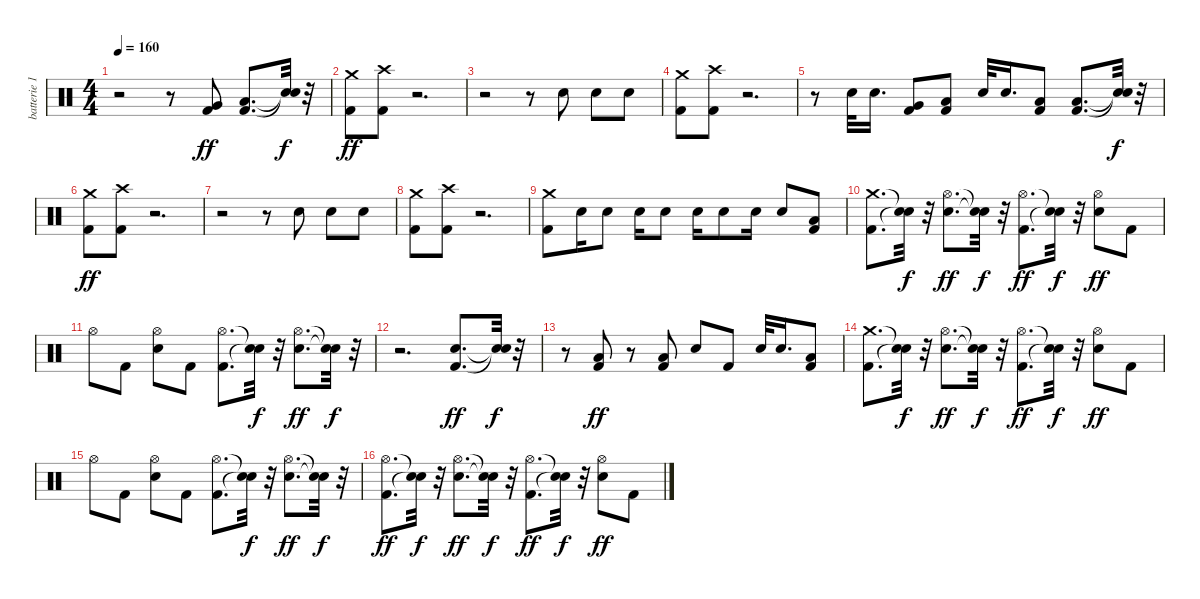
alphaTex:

\track ("batterie 1" "batterie 1") {instrument percussion}
\staff {score}
\articulation defaults
\ts (4 4)
\tempo 160
\clef neutral
\ks c
r.2{dy ff} r.8 ("Kick (hit) 2" "Very Low Tom (hit)").8 ("Kick (hit) 2" "Low Floor Tom (hit)").8{d} ("Snare (hit)"{t} "Snare (hit)"{t}).32{dy f} r.32 |
("Kick (hit) 2" "Crash medium (hit)").8{dy ff} ("Kick (hit) 2" "Crash high (hit)").8 r.2{d} |
r.2 r.8 "Electric Snare (hit)".8 "Electric Snare (hit)".8 "Electric Snare (hit)".8 |
("Kick (hit) 2" "Crash medium (hit)").8 ("Kick (hit) 2" "Crash high (hit)").8 r.2{d} |
r.8 "Electric Snare (hit)".32 "Electric Snare (hit)".16{d} ("Kick (hit) 2" "Very Low Tom (hit)").8 ("Kick (hit) 2" "Low Floor Tom (hit)").8 "Electric Snare (hit)".32 "Electric Snare (hit)".16{d} ("Kick (hit) 2" "Low Floor Tom (hit)").8 ("Kick (hit) 2" "Low Floor Tom (hit)").8{d} ("Snare (hit)"{t} "Snare (hit)"{t}).32{dy f} r.32 |
("Kick (hit) 2" "Crash medium (hit)").8{dy ff} ("Kick (hit) 2" "Crash high (hit)").8 r.2{d} |
r.2 r.8 "Electric Snare (hit)".8 "Electric Snare (hit)".8 "Electric Snare (hit)".8 |
("Kick (hit) 2" "Crash medium (hit)").8 ("Kick (hit) 2" "Crash high (hit)").8 r.2{d} |
("Kick (hit) 2" "Crash medium (hit)").8 "Electric Snare (hit)".16 "Electric Snare (hit)".8 "Electric Snare (hit)".16 "Electric Snare (hit)".8 "Electric Snare (hit)".16 "Electric Snare (hit)".8 "Electric Snare (hit)".16 "Electric Snare (hit)".8 ("Kick (hit) 2" "Low Floor Tom (hit)").8 |
("Kick (hit) 2" "Crash medium (hit)").8{d} ("Snare (hit)"{t} "Snare (hit)"{t}).32{dy f} r.32 ("Electric Snare (hit)" "Hi-Hat (open)").8{d dy ff} ("Snare (hit)"{t} "Snare (hit)"{t}).32{dy f} r.32 ("Kick (hit) 2" "Hi-Hat (open)").8{d dy ff} ("Snare (hit)"{t} "Snare (hit)"{t}).32{dy f} r.32 ("Electric Snare (hit)" "Hi-Hat (open)").8{dy ff} "Kick (hit) 2".8 |
"Hi-Hat (open)".8 "Kick (hit) 2".8 ("Electric Snare (hit)" "Hi-Hat (open)").8 "Kick (hit) 2".8 ("Kick (hit) 2" "Hi-Hat (open)").8{d} ("Snare (hit)"{t} "Snare (hit)"{t}).32{dy f} r.32 ("Electric Snare (hit)" "Hi-Hat (open)").8{d dy ff} ("Snare (hit)"{t} "Snare (hit)"{t}).32{dy f} r.32 |
r.2{d} ("Kick (hit) 2" "Electric Snare (hit)").8{d dy ff} ("Snare (hit)"{t} "Snare (hit)"{t}).32{dy f} r.32 |
r.8 ("Kick (hit) 2" "Low Floor Tom (hit)").8{dy ff} r.8 ("Kick (hit) 2" "Low Floor Tom (hit)").8 "Electric Snare (hit)".8 "Kick (hit) 2".8 "Electric Snare (hit)".32 "Electric Snare (hit)".16{d} ("Kick (hit) 2" "Low Floor Tom (hit)").8 |
("Kick (hit) 2" "Crash medium (hit)").8{d} ("Snare (hit)"{t} "Snare (hit)"{t}).32{dy f} r.32 ("Electric Snare (hit)" "Hi-Hat (open)").8{d dy ff} ("Snare (hit)"{t} "Snare (hit)"{t}).32{dy f} r.32 ("Kick (hit) 2" "Hi-Hat (open)").8{d dy ff} ("Snare (hit)"{t} "Snare (hit)"{t}).32{dy f} r.32 ("Electric Snare (hit)" "Hi-Hat (open)").8{dy ff} "Kick (hit) 2".8 |
"Hi-Hat (open)".8 "Kick (hit) 2".8 ("Electric Snare (hit)" "Hi-Hat (open)").8 "Kick (hit) 2".8 ("Kick (hit) 2" "Hi-Hat (open)").8{d} ("Snare (hit)"{t} "Snare (hit)"{t}).32{dy f} r.32 ("Electric Snare (hit)" "Hi-Hat (open)").8{d dy ff} ("Snare (hit)"{t} "Snare (hit)"{t}).32{dy f} r.32 |
("Kick (hit) 2" "Hi-Hat (open)").8{d dy ff} ("Snare (hit)"{t} "Snare (hit)"{t}).32{dy f} r.32 ("Electric Snare (hit)" "Hi-Hat (open)").8{d dy ff} ("Snare (hit)"{t} "Snare (hit)"{t}).32{dy f} r.32 ("Kick (hit) 2" "Hi-Hat (open)").8{d dy ff} ("Snare (hit)"{t} "Snare (hit)"{t}).32{dy f} r.32 ("Electric Snare (hit)" "Hi-Hat (open)").8{dy ff} "Kick (hit) 2".8
